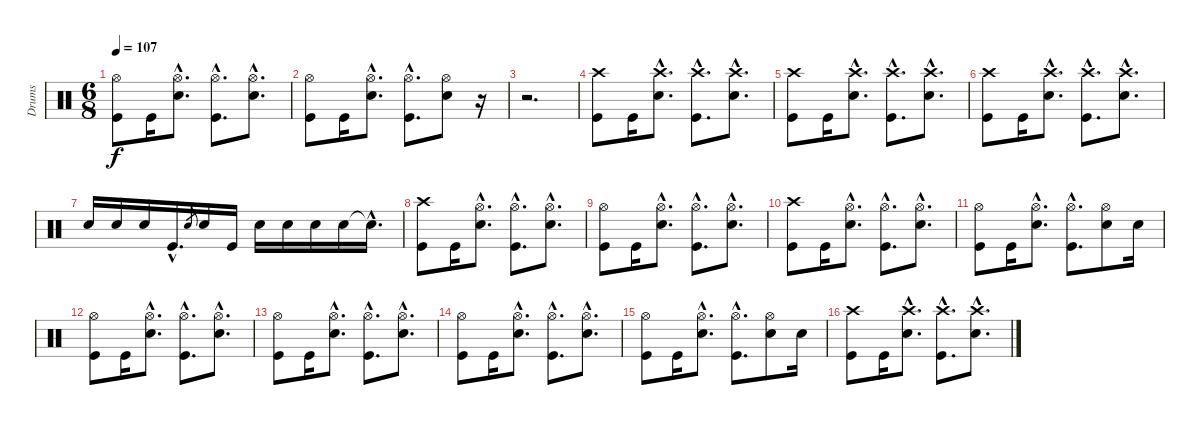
\track ("Drums" "Drums") {instrument percussion}
\staff {score}
\articulation defaults
\ts (6 8)
\tempo 107
\clef neutral
\ks c
("Hi-Hat (open)" "Kick (hit)").8{dy f} "Kick (hit)".16 ("Hi-Hat (open)"{hac} "Snare (hit) 2"{hac}).8{d} ("Hi-Hat (open)"{hac} "Kick (hit)"{hac}).8{d} ("Hi-Hat (open)"{hac} "Snare (hit) 2"{hac}).8{d} |
("Hi-Hat (open)" "Kick (hit)").8 "Kick (hit)".16 ("Hi-Hat (open)"{hac} "Snare (hit) 2"{hac}).8{d} ("Hi-Hat (open)"{hac} "Kick (hit)"{hac}).8{d} ("Hi-Hat (open)" "Snare (hit) 2").8 r.16 |
r.2{d} |
("Crash high (hit)" "Kick (hit)").8 "Kick (hit)".16 ("Crash high (hit)"{hac} "Snare (hit) 2"{hac}).8{d} ("Crash high (hit)"{hac} "Kick (hit)"{hac}).8{d} ("Crash high (hit)"{hac} "Snare (hit) 2"{hac}).8{d} |
("Crash high (hit)" "Kick (hit)").8 "Kick (hit)".16 ("Crash high (hit)"{hac} "Snare (hit) 2"{hac}).8{d} ("Crash high (hit)"{hac} "Kick (hit)"{hac}).8{d} ("Crash high (hit)"{hac} "Snare (hit) 2"{hac}).8{d} |
("Crash high (hit)" "Kick (hit)").8 "Kick (hit)".16 ("Crash high (hit)"{hac} "Snare (hit) 2"{hac}).8{d} ("Crash high (hit)"{hac} "Kick (hit)"{hac}).8{d} ("Crash high (hit)"{hac} "Snare (hit) 2"{hac}).8{d} |
"Snare (hit) 2".16 "Snare (hit) 2".16 "Snare (hit) 2".16 "Kick (hit)"{hac}.16{d} "Snare (hit) 2".8{gr} "Snare (hit) 2".16 "Kick (hit)".16 "Snare (hit) 2".16 "Snare (hit) 2".16 "Snare (hit) 2".16 "Snare (hit) 2".16 "Snare (hit)"{hac t}.16{d} |
("Crash high (hit)" "Kick (hit)").8 "Kick (hit)".16 ("Hi-Hat (open)"{hac} "Snare (hit) 2"{hac}).8{d} ("Hi-Hat (open)"{hac} "Kick (hit)"{hac}).8{d} ("Hi-Hat (open)"{hac} "Snare (hit) 2"{hac}).8{d} |
("Hi-Hat (open)" "Kick (hit)").8 "Kick (hit)".16 ("Hi-Hat (open)"{hac} "Snare (hit) 2"{hac}).8{d} ("Hi-Hat (open)"{hac} "Kick (hit)"{hac}).8{d} ("Hi-Hat (open)"{hac} "Snare (hit) 2"{hac}).8{d} |
("Crash high (hit)" "Kick (hit)").8 "Kick (hit)".16 ("Hi-Hat (open)"{hac} "Snare (hit) 2"{hac}).8{d} ("Hi-Hat (open)"{hac} "Kick (hit)"{hac}).8{d} ("Hi-Hat (open)"{hac} "Snare (hit) 2"{hac}).8{d} |
("Hi-Hat (open)" "Kick (hit)").8 "Kick (hit)".16 ("Hi-Hat (open)"{hac} "Snare (hit) 2"{hac}).8{d} ("Hi-Hat (open)"{hac} "Kick (hit)"{hac}).8{d} ("Hi-Hat (open)" "Snare (hit) 2").8 "Snare (hit) 2".16 |
("Hi-Hat (open)" "Kick (hit)").8 "Kick (hit)".16 ("Hi-Hat (open)"{hac} "Snare (hit) 2"{hac}).8{d} ("Hi-Hat (open)"{hac} "Kick (hit)"{hac}).8{d} ("Hi-Hat (open)"{hac} "Snare (hit) 2"{hac}).8{d} |
("Hi-Hat (open)" "Kick (hit)").8 "Kick (hit)".16 ("Hi-Hat (open)"{hac} "Snare (hit) 2"{hac}).8{d} ("Hi-Hat (open)"{hac} "Kick (hit)"{hac}).8{d} ("Hi-Hat (open)"{hac} "Snare (hit) 2"{hac}).8{d} |
("Hi-Hat (open)" "Kick (hit)").8 "Kick (hit)".16 ("Hi-Hat (open)"{hac} "Snare (hit) 2"{hac}).8{d} ("Hi-Hat (open)"{hac} "Kick (hit)"{hac}).8{d} ("Hi-Hat (open)"{hac} "Snare (hit) 2"{hac}).8{d} |
("Hi-Hat (open)" "Kick (hit)").8 "Kick (hit)".16 ("Hi-Hat (open)"{hac} "Snare (hit) 2"{hac}).8{d} ("Hi-Hat (open)"{hac} "Kick (hit)"{hac}).8{d} ("Hi-Hat (open)" "Snare (hit) 2").8 "Snare (hit) 2".16 |
("Crash high (hit)" "Kick (hit)").8 "Kick (hit)".16 ("Crash high (hit)"{hac} "Snare (hit) 2"{hac}).8{d} ("Crash high (hit)"{hac} "Kick (hit)"{hac}).8{d} ("Crash high (hit)"{hac} "Snare (hit) 2"{hac}).8{d}
